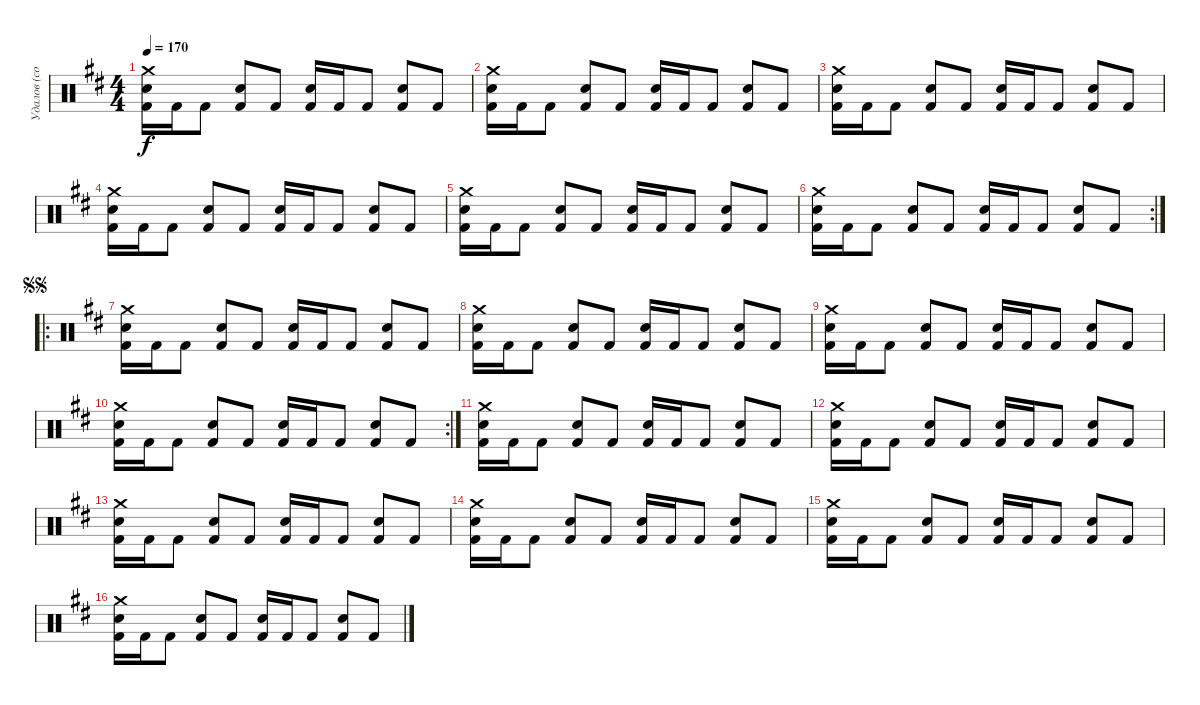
\track ("Удалов (сорри за ударные)" "Удалов (со") {instrument percussion}
\staff {score}
\articulation defaults
\ts (4 4)
\tempo 170
\clef neutral
\ks d
("Crash medium (hit)" "Snare (hit) 2" "Kick (hit) 2").16{dy f} "Kick (hit) 2".16 "Kick (hit) 2".8 ("Snare (hit) 2" "Kick (hit) 2").8 "Kick (hit) 2".8 ("Snare (hit) 2" "Kick (hit) 2").16 "Kick (hit) 2".16 "Kick (hit) 2".8 ("Snare (hit) 2" "Kick (hit) 2").8 "Kick (hit) 2".8 |
("Crash medium (hit)" "Snare (hit) 2" "Kick (hit) 2").16 "Kick (hit) 2".16 "Kick (hit) 2".8 ("Snare (hit) 2" "Kick (hit) 2").8 "Kick (hit) 2".8 ("Snare (hit) 2" "Kick (hit) 2").16 "Kick (hit) 2".16 "Kick (hit) 2".8 ("Snare (hit) 2" "Kick (hit) 2").8 "Kick (hit) 2".8 |
("Crash medium (hit)" "Snare (hit) 2" "Kick (hit) 2").16 "Kick (hit) 2".16 "Kick (hit) 2".8 ("Snare (hit) 2" "Kick (hit) 2").8 "Kick (hit) 2".8 ("Snare (hit) 2" "Kick (hit) 2").16 "Kick (hit) 2".16 "Kick (hit) 2".8 ("Snare (hit) 2" "Kick (hit) 2").8 "Kick (hit) 2".8 |
("Crash medium (hit)" "Snare (hit) 2" "Kick (hit) 2").16 "Kick (hit) 2".16 "Kick (hit) 2".8 ("Snare (hit) 2" "Kick (hit) 2").8 "Kick (hit) 2".8 ("Snare (hit) 2" "Kick (hit) 2").16 "Kick (hit) 2".16 "Kick (hit) 2".8 ("Snare (hit) 2" "Kick (hit) 2").8 "Kick (hit) 2".8 |
("Crash medium (hit)" "Snare (hit) 2" "Kick (hit) 2").16 "Kick (hit) 2".16 "Kick (hit) 2".8 ("Snare (hit) 2" "Kick (hit) 2").8 "Kick (hit) 2".8 ("Snare (hit) 2" "Kick (hit) 2").16 "Kick (hit) 2".16 "Kick (hit) 2".8 ("Snare (hit) 2" "Kick (hit) 2").8 "Kick (hit) 2".8 |
\rc 2
("Crash medium (hit)" "Snare (hit) 2" "Kick (hit) 2").16 "Kick (hit) 2".16 "Kick (hit) 2".8 ("Snare (hit) 2" "Kick (hit) 2").8 "Kick (hit) 2".8 ("Snare (hit) 2" "Kick (hit) 2").16 "Kick (hit) 2".16 "Kick (hit) 2".8 ("Snare (hit) 2" "Kick (hit) 2").8 "Kick (hit) 2".8 |
\ro
\jump segnosegno
("Crash medium (hit)" "Snare (hit) 2" "Kick (hit) 2").16 "Kick (hit) 2".16 "Kick (hit) 2".8 ("Snare (hit) 2" "Kick (hit) 2").8 "Kick (hit) 2".8 ("Snare (hit) 2" "Kick (hit) 2").16 "Kick (hit) 2".16 "Kick (hit) 2".8 ("Snare (hit) 2" "Kick (hit) 2").8 "Kick (hit) 2".8 |
("Crash medium (hit)" "Snare (hit) 2" "Kick (hit) 2").16 "Kick (hit) 2".16 "Kick (hit) 2".8 ("Snare (hit) 2" "Kick (hit) 2").8 "Kick (hit) 2".8 ("Snare (hit) 2" "Kick (hit) 2").16 "Kick (hit) 2".16 "Kick (hit) 2".8 ("Snare (hit) 2" "Kick (hit) 2").8 "Kick (hit) 2".8 |
("Crash medium (hit)" "Snare (hit) 2" "Kick (hit) 2").16 "Kick (hit) 2".16 "Kick (hit) 2".8 ("Snare (hit) 2" "Kick (hit) 2").8 "Kick (hit) 2".8 ("Snare (hit) 2" "Kick (hit) 2").16 "Kick (hit) 2".16 "Kick (hit) 2".8 ("Snare (hit) 2" "Kick (hit) 2").8 "Kick (hit) 2".8 |
\rc 2
("Crash medium (hit)" "Snare (hit) 2" "Kick (hit) 2").16 "Kick (hit) 2".16 "Kick (hit) 2".8 ("Snare (hit) 2" "Kick (hit) 2").8 "Kick (hit) 2".8 ("Snare (hit) 2" "Kick (hit) 2").16 "Kick (hit) 2".16 "Kick (hit) 2".8 ("Snare (hit) 2" "Kick (hit) 2").8 "Kick (hit) 2".8 |
("Crash medium (hit)" "Snare (hit) 2" "Kick (hit) 2").16 "Kick (hit) 2".16 "Kick (hit) 2".8 ("Snare (hit) 2" "Kick (hit) 2").8 "Kick (hit) 2".8 ("Snare (hit) 2" "Kick (hit) 2").16 "Kick (hit) 2".16 "Kick (hit) 2".8 ("Snare (hit) 2" "Kick (hit) 2").8 "Kick (hit) 2".8 |
("Crash medium (hit)" "Snare (hit) 2" "Kick (hit) 2").16 "Kick (hit) 2".16 "Kick (hit) 2".8 ("Snare (hit) 2" "Kick (hit) 2").8 "Kick (hit) 2".8 ("Snare (hit) 2" "Kick (hit) 2").16 "Kick (hit) 2".16 "Kick (hit) 2".8 ("Snare (hit) 2" "Kick (hit) 2").8 "Kick (hit) 2".8 |
("Crash medium (hit)" "Snare (hit) 2" "Kick (hit) 2").16 "Kick (hit) 2".16 "Kick (hit) 2".8 ("Snare (hit) 2" "Kick (hit) 2").8 "Kick (hit) 2".8 ("Snare (hit) 2" "Kick (hit) 2").16 "Kick (hit) 2".16 "Kick (hit) 2".8 ("Snare (hit) 2" "Kick (hit) 2").8 "Kick (hit) 2".8 |
("Crash medium (hit)" "Snare (hit) 2" "Kick (hit) 2").16 "Kick (hit) 2".16 "Kick (hit) 2".8 ("Snare (hit) 2" "Kick (hit) 2").8 "Kick (hit) 2".8 ("Snare (hit) 2" "Kick (hit) 2").16 "Kick (hit) 2".16 "Kick (hit) 2".8 ("Snare (hit) 2" "Kick (hit) 2").8 "Kick (hit) 2".8 |
("Crash medium (hit)" "Snare (hit) 2" "Kick (hit) 2").16 "Kick (hit) 2".16 "Kick (hit) 2".8 ("Snare (hit) 2" "Kick (hit) 2").8 "Kick (hit) 2".8 ("Snare (hit) 2" "Kick (hit) 2").16 "Kick (hit) 2".16 "Kick (hit) 2".8 ("Snare (hit) 2" "Kick (hit) 2").8 "Kick (hit) 2".8 |
("Crash medium (hit)" "Snare (hit) 2" "Kick (hit) 2").16 "Kick (hit) 2".16 "Kick (hit) 2".8 ("Snare (hit) 2" "Kick (hit) 2").8 "Kick (hit) 2".8 ("Snare (hit) 2" "Kick (hit) 2").16 "Kick (hit) 2".16 "Kick (hit) 2".8 ("Snare (hit) 2" "Kick (hit) 2").8 "Kick (hit) 2".8
